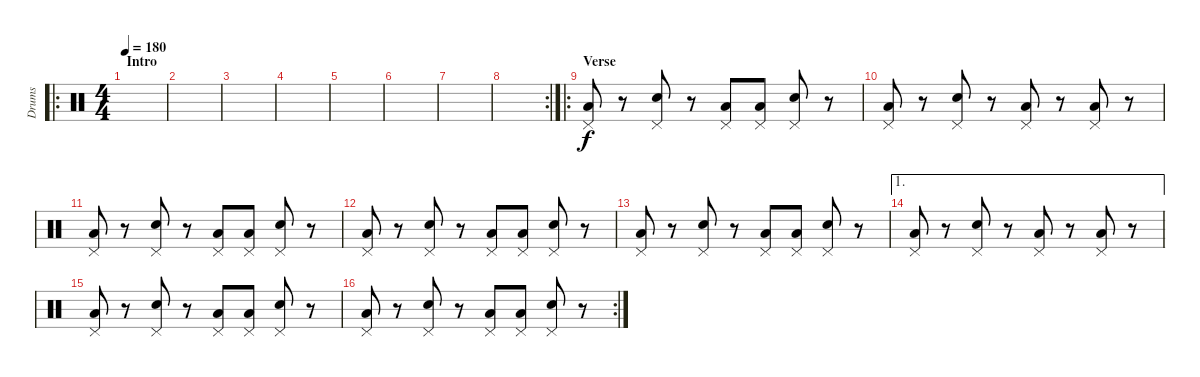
\track ("Drums" "Drums") {instrument percussion}
\staff {score}
\articulation defaults
\ro
\ts (4 4)
\section ("" "Intro")
\tempo 180
\clef neutral
\ks c
|
|
|
|
|
|
|
\rc 2
|
\ro
\section ("" "Verse")
("Low Tom (hit)" "Pedal Hi-Hat (hit)").8 r.8 ("Electric Snare (hit)" "Pedal Hi-Hat (hit)").8 r.8 ("Low Tom (hit)" "Pedal Hi-Hat (hit)").8 ("Low Tom (hit)" "Pedal Hi-Hat (hit)").8 ("Electric Snare (hit)" "Pedal Hi-Hat (hit)").8 r.8 |
("Low Tom (hit)" "Pedal Hi-Hat (hit)").8 r.8 ("Electric Snare (hit)" "Pedal Hi-Hat (hit)").8 r.8 ("Low Tom (hit)" "Pedal Hi-Hat (hit)").8 r.8 ("Low Tom (hit)" "Pedal Hi-Hat (hit)").8 r.8 |
("Low Tom (hit)" "Pedal Hi-Hat (hit)").8 r.8 ("Electric Snare (hit)" "Pedal Hi-Hat (hit)").8 r.8 ("Low Tom (hit)" "Pedal Hi-Hat (hit)").8 ("Low Tom (hit)" "Pedal Hi-Hat (hit)").8 ("Electric Snare (hit)" "Pedal Hi-Hat (hit)").8 r.8 |
("Low Tom (hit)" "Pedal Hi-Hat (hit)").8 r.8 ("Electric Snare (hit)" "Pedal Hi-Hat (hit)").8 r.8 ("Low Tom (hit)" "Pedal Hi-Hat (hit)").8 ("Low Tom (hit)" "Pedal Hi-Hat (hit)").8 ("Electric Snare (hit)" "Pedal Hi-Hat (hit)").8 r.8 |
("Low Tom (hit)" "Pedal Hi-Hat (hit)").8 r.8 ("Electric Snare (hit)" "Pedal Hi-Hat (hit)").8 r.8 ("Low Tom (hit)" "Pedal Hi-Hat (hit)").8 ("Low Tom (hit)" "Pedal Hi-Hat (hit)").8 ("Electric Snare (hit)" "Pedal Hi-Hat (hit)").8 r.8 |
\ae 1
("Low Tom (hit)" "Pedal Hi-Hat (hit)").8 r.8 ("Electric Snare (hit)" "Pedal Hi-Hat (hit)").8 r.8 ("Low Tom (hit)" "Pedal Hi-Hat (hit)").8 r.8 ("Low Tom (hit)" "Pedal Hi-Hat (hit)").8 r.8 |
("Low Tom (hit)" "Pedal Hi-Hat (hit)").8 r.8 ("Electric Snare (hit)" "Pedal Hi-Hat (hit)").8 r.8 ("Low Tom (hit)" "Pedal Hi-Hat (hit)").8 ("Low Tom (hit)" "Pedal Hi-Hat (hit)").8 ("Electric Snare (hit)" "Pedal Hi-Hat (hit)").8 r.8 |
\rc 2
("Low Tom (hit)" "Pedal Hi-Hat (hit)").8 r.8 ("Electric Snare (hit)" "Pedal Hi-Hat (hit)").8 r.8 ("Low Tom (hit)" "Pedal Hi-Hat (hit)").8 ("Low Tom (hit)" "Pedal Hi-Hat (hit)").8 ("Electric Snare (hit)" "Pedal Hi-Hat (hit)").8 r.8
